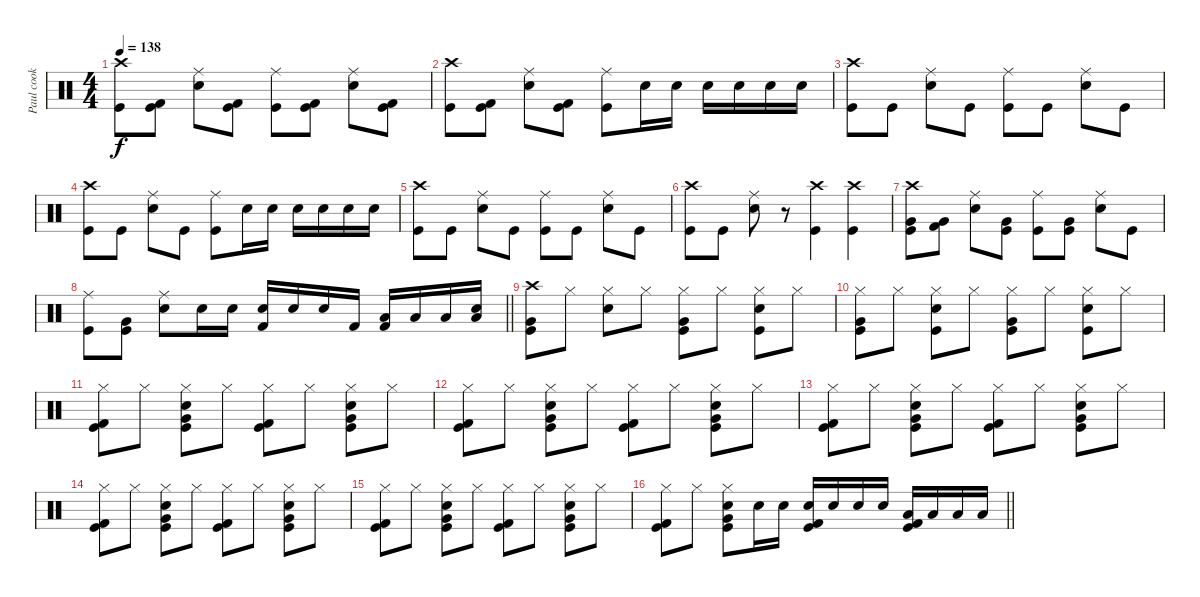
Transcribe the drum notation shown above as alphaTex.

\track ("Paul cook" "Paul cook") {instrument percussion}
\staff {score}
\articulation defaults
\ts (4 4)
\tempo 138
\clef neutral
\ks c
("Crash high (hit)" "Kick (hit)").8{dy f} ("Kick (hit) 2" "Kick (hit)").8 ("Ride (middle)" "Snare (hit) 2").8 ("Kick (hit) 2" "Kick (hit)").8 ("Ride (middle)" "Kick (hit)").8 ("Kick (hit) 2" "Kick (hit)").8 ("Ride (middle)" "Snare (hit) 2").8 ("Kick (hit) 2" "Kick (hit)").8 |
("Crash high (hit)" "Kick (hit)").8 ("Kick (hit) 2" "Kick (hit)").8 ("Ride (middle)" "Snare (hit) 2").8 ("Kick (hit) 2" "Kick (hit)").8 ("Ride (middle)" "Kick (hit)").8 "Snare (hit) 2".16 "Snare (hit) 2".16 "Snare (hit) 2".16 "Snare (hit) 2".16 "Snare (hit) 2".16 "Snare (hit) 2".16 |
("Crash high (hit)" "Kick (hit)").8 "Kick (hit)".8 ("Ride (middle)" "Snare (hit) 2").8 "Kick (hit)".8 ("Ride (middle)" "Kick (hit)").8 "Kick (hit)".8 ("Ride (middle)" "Snare (hit) 2").8 "Kick (hit)".8 |
("Crash high (hit)" "Kick (hit)").8 "Kick (hit)".8 ("Ride (middle)" "Snare (hit) 2").8 "Kick (hit)".8 ("Ride (middle)" "Kick (hit)").8 "Snare (hit) 2".16 "Snare (hit) 2".16 "Snare (hit) 2".16 "Snare (hit) 2".16 "Snare (hit) 2".16 "Snare (hit) 2".16 |
("Crash high (hit)" "Kick (hit)").8 "Kick (hit)".8 ("Ride (middle)" "Snare (hit) 2").8 "Kick (hit)".8 ("Ride (middle)" "Kick (hit)").8 "Kick (hit)".8 ("Ride (middle)" "Snare (hit) 2").8 "Kick (hit)".8 |
("Crash high (hit)" "Kick (hit)").8 "Kick (hit)".8 ("Ride (middle)" "Snare (hit) 2").8 r.8 ("Crash high (hit)" "Kick (hit)").4 ("Crash high (hit)" "Kick (hit)").4 |
("Very Low Tom (hit)" "Crash high (hit)" "Kick (hit)").8 ("Very Low Tom (hit)" "Kick (hit) 2").8 ("Ride (middle)" "Snare (hit) 2").8 ("Very Low Tom (hit)" "Kick (hit)").8 ("Ride (middle)" "Kick (hit)").8 ("Very Low Tom (hit)" "Kick (hit)").8 ("Ride (middle)" "Snare (hit) 2").8 "Kick (hit)".8 |
\barLineRight lightlight
("Ride (middle)" "Kick (hit)").8 ("Very Low Tom (hit)" "Kick (hit)").8 ("Ride (middle)" "Snare (hit) 2").8 "Snare (hit) 2".16 "Snare (hit) 2".16 ("Kick (hit) 2" "Snare (hit) 2").16 "Snare (hit) 2".16 "Snare (hit) 2".16 "Kick (hit) 2".16 ("Kick (hit) 2" "Low Tom (hit)").16 "Low Tom (hit)".16 "Low Tom (hit)".16 ("Snare (hit) 2" "Low Tom (hit)").16 |
("Very Low Tom (hit)" "Crash high (hit)" "Kick (hit)").8 "Hi-Hat (closed)".8 ("Hi-Hat (closed)" "Snare (hit) 2").8 "Hi-Hat (closed)".8 ("Very Low Tom (hit)" "Hi-Hat (closed)" "Kick (hit)").8 "Hi-Hat (closed)".8 ("Hi-Hat (closed)" "Snare (hit) 2" "Kick (hit)").8 "Hi-Hat (closed)".8 |
("Very Low Tom (hit)" "Hi-Hat (closed)" "Kick (hit)").8 "Hi-Hat (closed)".8 ("Hi-Hat (closed)" "Snare (hit) 2" "Kick (hit)").8 "Hi-Hat (closed)".8 ("Very Low Tom (hit)" "Hi-Hat (closed)" "Kick (hit)").8 "Hi-Hat (closed)".8 ("Hi-Hat (closed)" "Snare (hit) 2" "Kick (hit)").8 "Hi-Hat (closed)".8 |
("Kick (hit) 2" "Hi-Hat (closed)" "Kick (hit)").8 "Hi-Hat (closed)".8 ("Very Low Tom (hit)" "Hi-Hat (closed)" "Snare (hit) 2" "Kick (hit)").8 "Hi-Hat (closed)".8 ("Kick (hit) 2" "Hi-Hat (closed)" "Kick (hit)").8 "Hi-Hat (closed)".8 ("Very Low Tom (hit)" "Hi-Hat (closed)" "Snare (hit) 2" "Kick (hit)").8 "Hi-Hat (closed)".8 |
("Kick (hit) 2" "Hi-Hat (closed)" "Kick (hit)").8 "Hi-Hat (closed)".8 ("Very Low Tom (hit)" "Hi-Hat (closed)" "Snare (hit) 2" "Kick (hit)").8 "Hi-Hat (closed)".8 ("Kick (hit) 2" "Hi-Hat (closed)" "Kick (hit)").8 "Hi-Hat (closed)".8 ("Very Low Tom (hit)" "Hi-Hat (closed)" "Snare (hit) 2" "Kick (hit)").8 "Hi-Hat (closed)".8 |
("Kick (hit) 2" "Hi-Hat (closed)" "Kick (hit)").8 "Hi-Hat (closed)".8 ("Very Low Tom (hit)" "Hi-Hat (closed)" "Snare (hit) 2" "Kick (hit)").8 "Hi-Hat (closed)".8 ("Kick (hit) 2" "Hi-Hat (closed)" "Kick (hit)").8 "Hi-Hat (closed)".8 ("Very Low Tom (hit)" "Hi-Hat (closed)" "Snare (hit) 2" "Kick (hit)").8 "Hi-Hat (closed)".8 |
("Kick (hit) 2" "Hi-Hat (closed)" "Kick (hit)").8 "Hi-Hat (closed)".8 ("Very Low Tom (hit)" "Hi-Hat (closed)" "Snare (hit) 2" "Kick (hit)").8 "Hi-Hat (closed)".8 ("Kick (hit) 2" "Hi-Hat (closed)" "Kick (hit)").8 "Hi-Hat (closed)".8 ("Very Low Tom (hit)" "Hi-Hat (closed)" "Snare (hit) 2" "Kick (hit)").8 "Hi-Hat (closed)".8 |
("Kick (hit) 2" "Hi-Hat (closed)" "Kick (hit)").8 "Hi-Hat (closed)".8 ("Very Low Tom (hit)" "Hi-Hat (closed)" "Snare (hit) 2" "Kick (hit)").8 "Hi-Hat (closed)".8 ("Kick (hit) 2" "Hi-Hat (closed)" "Kick (hit)").8 "Hi-Hat (closed)".8 ("Very Low Tom (hit)" "Hi-Hat (closed)" "Snare (hit) 2" "Kick (hit)").8 "Hi-Hat (closed)".8 |
\barLineRight lightlight
("Kick (hit) 2" "Hi-Hat (closed)" "Kick (hit)").8 "Hi-Hat (closed)".8 ("Very Low Tom (hit)" "Hi-Hat (closed)" "Snare (hit) 2" "Kick (hit)").8 "Snare (hit) 2".16 "Snare (hit) 2".16 ("Kick (hit) 2" "Snare (hit) 2" "Kick (hit)").16 "Snare (hit) 2".16 "Snare (hit) 2".16 "Snare (hit) 2".16 ("Kick (hit) 2" "Low Tom (hit)" "Kick (hit)").16 "Low Tom (hit)".16 "Low Tom (hit)".16 "Low Tom (hit)".16
